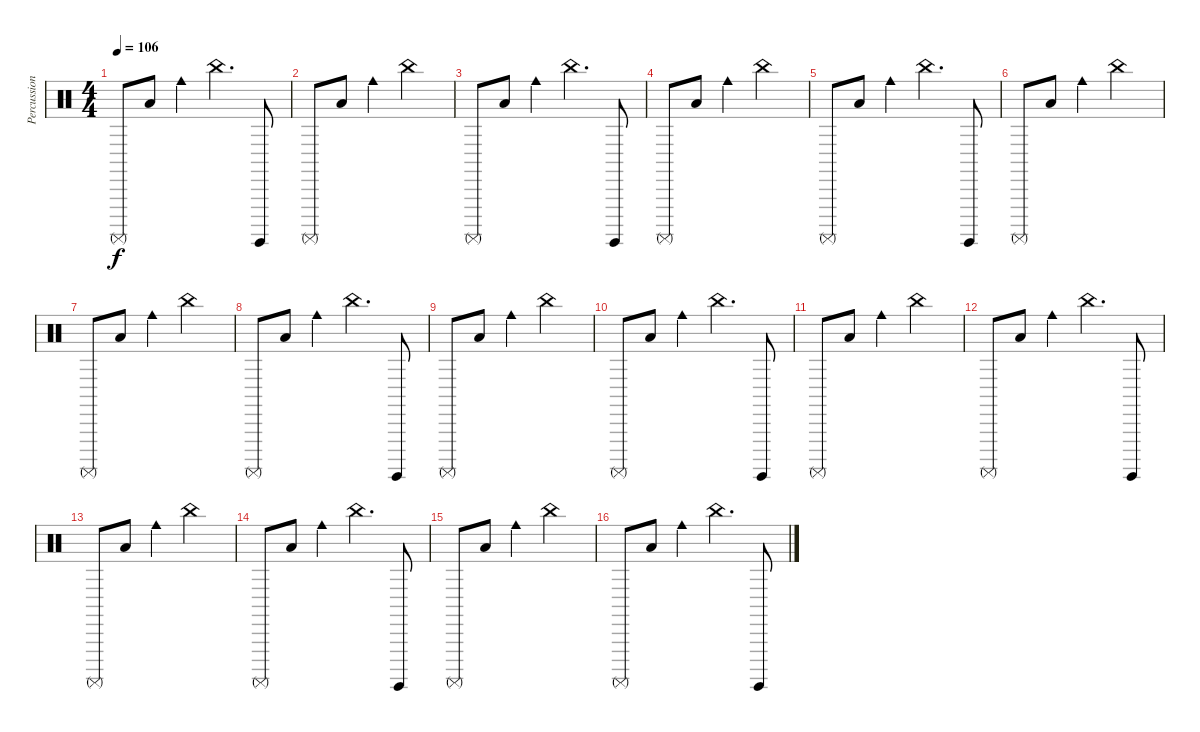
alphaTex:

\track ("Percussion" "Percussion") {instrument percussion}
\staff {score}
\articulation defaults
\ts (4 4)
\tempo 106
\clef neutral
\ks c "Surdo (mute)".8{dy f} "Low Floor Tom (hit)".8 "Cowbell medium (hit)".4 "China (hit)".4{d} "Surdo (hit)".8
|
"Surdo (mute)".8 "Low Floor Tom (hit)".8 "Cowbell medium (hit)".4 "China (hit)".2 |
"Surdo (mute)".8 "Low Floor Tom (hit)".8 "Cowbell medium (hit)".4 "China (hit)".4{d} "Surdo (hit)".8 |
"Surdo (mute)".8 "Low Floor Tom (hit)".8 "Cowbell medium (hit)".4 "China (hit)".2 |
"Surdo (mute)".8 "Low Floor Tom (hit)".8 "Cowbell medium (hit)".4 "China (hit)".4{d} "Surdo (hit)".8 |
"Surdo (mute)".8 "Low Floor Tom (hit)".8 "Cowbell medium (hit)".4 "China (hit)".2 |
"Surdo (mute)".8 "Low Floor Tom (hit)".8 "Cowbell medium (hit)".4 "China (hit)".2 |
"Surdo (mute)".8 "Low Floor Tom (hit)".8 "Cowbell medium (hit)".4 "China (hit)".4{d} "Surdo (hit)".8 |
"Surdo (mute)".8 "Low Floor Tom (hit)".8 "Cowbell medium (hit)".4 "China (hit)".2 |
"Surdo (mute)".8 "Low Floor Tom (hit)".8 "Cowbell medium (hit)".4 "China (hit)".4{d} "Surdo (hit)".8 |
"Surdo (mute)".8 "Low Floor Tom (hit)".8 "Cowbell medium (hit)".4 "China (hit)".2 |
"Surdo (mute)".8 "Low Floor Tom (hit)".8 "Cowbell medium (hit)".4 "China (hit)".4{d} "Surdo (hit)".8 |
"Surdo (mute)".8 "Low Floor Tom (hit)".8 "Cowbell medium (hit)".4 "China (hit)".2 |
"Surdo (mute)".8 "Low Floor Tom (hit)".8 "Cowbell medium (hit)".4 "China (hit)".4{d} "Surdo (hit)".8 |
"Surdo (mute)".8 "Low Floor Tom (hit)".8 "Cowbell medium (hit)".4 "China (hit)".2 |
"Surdo (mute)".8 "Low Floor Tom (hit)".8 "Cowbell medium (hit)".4 "China (hit)".4{d} "Surdo (hit)".8
